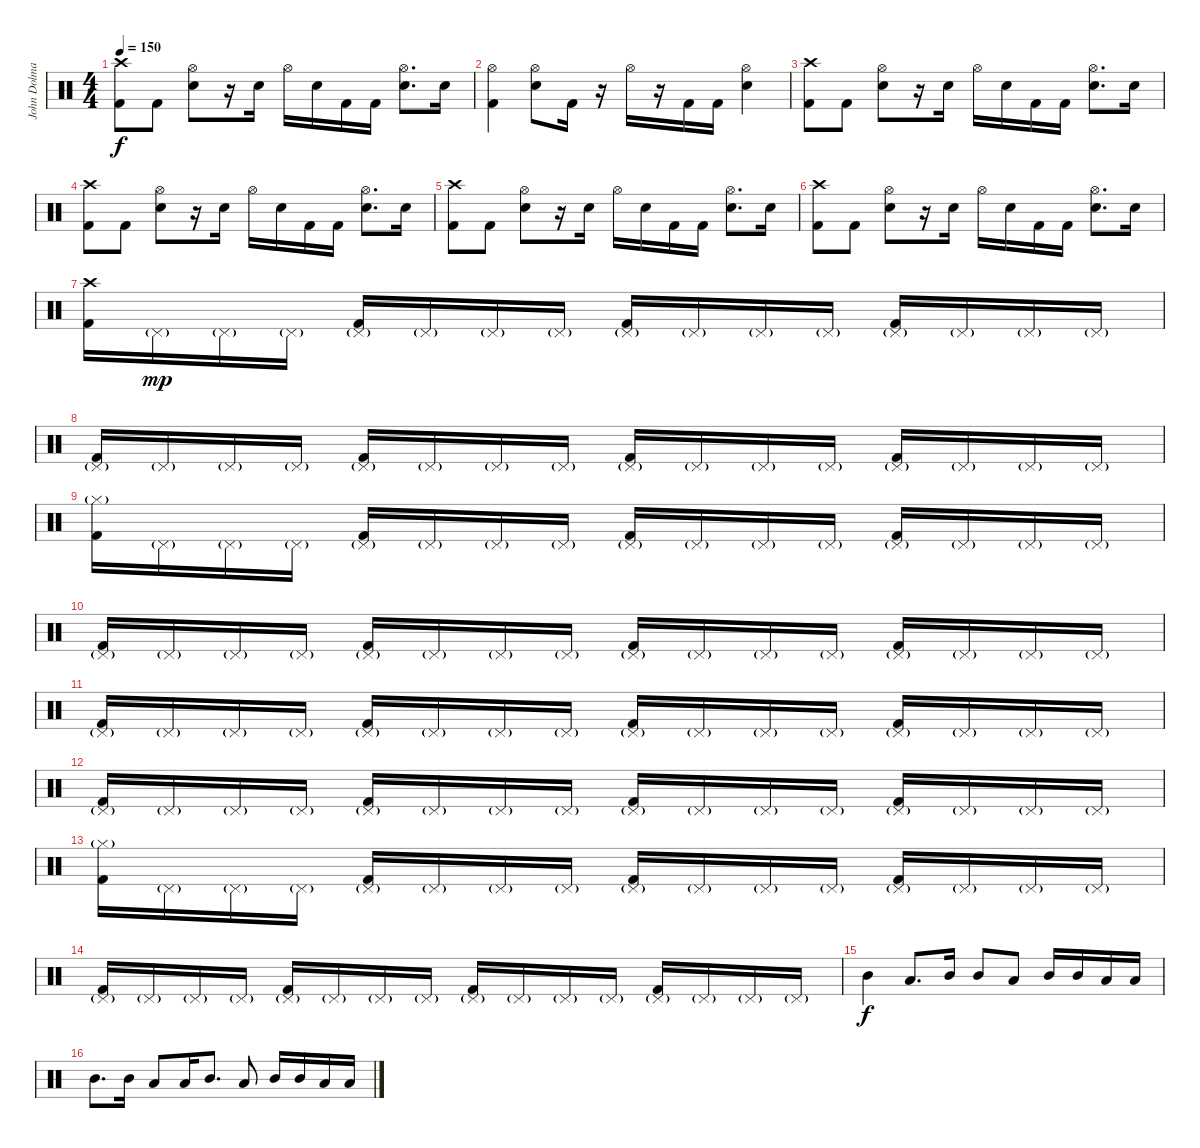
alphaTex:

\track ("John Dolmayan" "John Dolma") {instrument percussion}
\staff {score}
\articulation defaults
\ts (4 4)
\tempo 150
\clef neutral
\ks c
("Crash high (hit)" "Kick (hit) 2").8{dy f} "Kick (hit) 2".8 ("Hi-Hat (open)" "Electric Snare (hit)").8 r.16 "Electric Snare (hit)".16 "Hi-Hat (open)".16 "Electric Snare (hit)".16 "Kick (hit) 2".16 "Kick (hit) 2".16 ("Hi-Hat (open)" "Electric Snare (hit)").8{d} "Electric Snare (hit)".16 |
("Hi-Hat (open)" "Kick (hit) 2").4 ("Hi-Hat (open)" "Electric Snare (hit)").8 "Kick (hit) 2".16 r.16 "Hi-Hat (open)".16 r.16 "Kick (hit) 2".16 "Kick (hit) 2".16 ("Hi-Hat (open)" "Electric Snare (hit)").4 |
("Crash high (hit)" "Kick (hit) 2").8 "Kick (hit) 2".8 ("Hi-Hat (open)" "Electric Snare (hit)").8 r.16 "Electric Snare (hit)".16 "Hi-Hat (open)".16 "Electric Snare (hit)".16 "Kick (hit) 2".16 "Kick (hit) 2".16 ("Hi-Hat (open)" "Electric Snare (hit)").8{d} "Electric Snare (hit)".16 |
("Crash high (hit)" "Kick (hit) 2").8 "Kick (hit) 2".8 ("Hi-Hat (open)" "Electric Snare (hit)").8 r.16 "Electric Snare (hit)".16 "Hi-Hat (open)".16 "Electric Snare (hit)".16 "Kick (hit) 2".16 "Kick (hit) 2".16 ("Hi-Hat (open)" "Electric Snare (hit)").8{d} "Electric Snare (hit)".16 |
("Crash high (hit)" "Kick (hit) 2").8 "Kick (hit) 2".8 ("Hi-Hat (open)" "Electric Snare (hit)").8 r.16 "Electric Snare (hit)".16 "Hi-Hat (open)".16 "Electric Snare (hit)".16 "Kick (hit) 2".16 "Kick (hit) 2".16 ("Hi-Hat (open)" "Electric Snare (hit)").8{d} "Electric Snare (hit)".16 |
("Crash high (hit)" "Kick (hit) 2").8 "Kick (hit) 2".8 ("Hi-Hat (open)" "Electric Snare (hit)").8 r.16 "Electric Snare (hit)".16 "Hi-Hat (open)".16 "Electric Snare (hit)".16 "Kick (hit) 2".16 "Kick (hit) 2".16 ("Hi-Hat (open)" "Electric Snare (hit)").8{d} "Electric Snare (hit)".16 |
("Crash high (hit)" "Kick (hit) 2").16 "Pedal Hi-Hat (hit)"{g}.16{dy mp} "Pedal Hi-Hat (hit)"{g}.16 "Pedal Hi-Hat (hit)"{g}.16 ("Pedal Hi-Hat (hit)"{g} "Kick (hit) 2").16 "Pedal Hi-Hat (hit)"{g}.16 "Pedal Hi-Hat (hit)"{g}.16 "Pedal Hi-Hat (hit)"{g}.16 ("Pedal Hi-Hat (hit)"{g} "Kick (hit) 2").16 "Pedal Hi-Hat (hit)"{g}.16 "Pedal Hi-Hat (hit)"{g}.16 "Pedal Hi-Hat (hit)"{g}.16 ("Pedal Hi-Hat (hit)"{g} "Kick (hit) 2").16 "Pedal Hi-Hat (hit)"{g}.16 "Pedal Hi-Hat (hit)"{g}.16 "Pedal Hi-Hat (hit)"{g}.16 |
("Pedal Hi-Hat (hit)"{g} "Kick (hit) 2").16 "Pedal Hi-Hat (hit)"{g}.16 "Pedal Hi-Hat (hit)"{g}.16 "Pedal Hi-Hat (hit)"{g}.16 ("Pedal Hi-Hat (hit)"{g} "Kick (hit) 2").16 "Pedal Hi-Hat (hit)"{g}.16 "Pedal Hi-Hat (hit)"{g}.16 "Pedal Hi-Hat (hit)"{g}.16 ("Pedal Hi-Hat (hit)"{g} "Kick (hit) 2").16 "Pedal Hi-Hat (hit)"{g}.16 "Pedal Hi-Hat (hit)"{g}.16 "Pedal Hi-Hat (hit)"{g}.16 ("Pedal Hi-Hat (hit)"{g} "Kick (hit) 2").16 "Pedal Hi-Hat (hit)"{g}.16 "Pedal Hi-Hat (hit)"{g}.16 "Pedal Hi-Hat (hit)"{g}.16 |
("Hi-Hat (closed)"{g} "Kick (hit) 2").16 "Pedal Hi-Hat (hit)"{g}.16 "Pedal Hi-Hat (hit)"{g}.16 "Pedal Hi-Hat (hit)"{g}.16 ("Pedal Hi-Hat (hit)"{g} "Kick (hit) 2").16 "Pedal Hi-Hat (hit)"{g}.16 "Pedal Hi-Hat (hit)"{g}.16 "Pedal Hi-Hat (hit)"{g}.16 ("Pedal Hi-Hat (hit)"{g} "Kick (hit) 2").16 "Pedal Hi-Hat (hit)"{g}.16 "Pedal Hi-Hat (hit)"{g}.16 "Pedal Hi-Hat (hit)"{g}.16 ("Pedal Hi-Hat (hit)"{g} "Kick (hit) 2").16 "Pedal Hi-Hat (hit)"{g}.16 "Pedal Hi-Hat (hit)"{g}.16 "Pedal Hi-Hat (hit)"{g}.16 |
("Pedal Hi-Hat (hit)"{g} "Kick (hit) 2").16 "Pedal Hi-Hat (hit)"{g}.16 "Pedal Hi-Hat (hit)"{g}.16 "Pedal Hi-Hat (hit)"{g}.16 ("Pedal Hi-Hat (hit)"{g} "Kick (hit) 2").16 "Pedal Hi-Hat (hit)"{g}.16 "Pedal Hi-Hat (hit)"{g}.16 "Pedal Hi-Hat (hit)"{g}.16 ("Pedal Hi-Hat (hit)"{g} "Kick (hit) 2").16 "Pedal Hi-Hat (hit)"{g}.16 "Pedal Hi-Hat (hit)"{g}.16 "Pedal Hi-Hat (hit)"{g}.16 ("Pedal Hi-Hat (hit)"{g} "Kick (hit) 2").16 "Pedal Hi-Hat (hit)"{g}.16 "Pedal Hi-Hat (hit)"{g}.16 "Pedal Hi-Hat (hit)"{g}.16 |
("Pedal Hi-Hat (hit)"{g} "Kick (hit) 2").16 "Pedal Hi-Hat (hit)"{g}.16 "Pedal Hi-Hat (hit)"{g}.16 "Pedal Hi-Hat (hit)"{g}.16 ("Pedal Hi-Hat (hit)"{g} "Kick (hit) 2").16 "Pedal Hi-Hat (hit)"{g}.16 "Pedal Hi-Hat (hit)"{g}.16 "Pedal Hi-Hat (hit)"{g}.16 ("Pedal Hi-Hat (hit)"{g} "Kick (hit) 2").16 "Pedal Hi-Hat (hit)"{g}.16 "Pedal Hi-Hat (hit)"{g}.16 "Pedal Hi-Hat (hit)"{g}.16 ("Pedal Hi-Hat (hit)"{g} "Kick (hit) 2").16 "Pedal Hi-Hat (hit)"{g}.16 "Pedal Hi-Hat (hit)"{g}.16 "Pedal Hi-Hat (hit)"{g}.16 |
("Pedal Hi-Hat (hit)"{g} "Kick (hit) 2").16 "Pedal Hi-Hat (hit)"{g}.16 "Pedal Hi-Hat (hit)"{g}.16 "Pedal Hi-Hat (hit)"{g}.16 ("Pedal Hi-Hat (hit)"{g} "Kick (hit) 2").16 "Pedal Hi-Hat (hit)"{g}.16 "Pedal Hi-Hat (hit)"{g}.16 "Pedal Hi-Hat (hit)"{g}.16 ("Pedal Hi-Hat (hit)"{g} "Kick (hit) 2").16 "Pedal Hi-Hat (hit)"{g}.16 "Pedal Hi-Hat (hit)"{g}.16 "Pedal Hi-Hat (hit)"{g}.16 ("Pedal Hi-Hat (hit)"{g} "Kick (hit) 2").16 "Pedal Hi-Hat (hit)"{g}.16 "Pedal Hi-Hat (hit)"{g}.16 "Pedal Hi-Hat (hit)"{g}.16 |
("Hi-Hat (closed)"{g} "Kick (hit) 2").16 "Pedal Hi-Hat (hit)"{g}.16 "Pedal Hi-Hat (hit)"{g}.16 "Pedal Hi-Hat (hit)"{g}.16 ("Pedal Hi-Hat (hit)"{g} "Kick (hit) 2").16 "Pedal Hi-Hat (hit)"{g}.16 "Pedal Hi-Hat (hit)"{g}.16 "Pedal Hi-Hat (hit)"{g}.16 ("Pedal Hi-Hat (hit)"{g} "Kick (hit) 2").16 "Pedal Hi-Hat (hit)"{g}.16 "Pedal Hi-Hat (hit)"{g}.16 "Pedal Hi-Hat (hit)"{g}.16 ("Pedal Hi-Hat (hit)"{g} "Kick (hit) 2").16 "Pedal Hi-Hat (hit)"{g}.16 "Pedal Hi-Hat (hit)"{g}.16 "Pedal Hi-Hat (hit)"{g}.16 |
("Pedal Hi-Hat (hit)"{g} "Kick (hit) 2").16 "Pedal Hi-Hat (hit)"{g}.16 "Pedal Hi-Hat (hit)"{g}.16 "Pedal Hi-Hat (hit)"{g}.16 ("Pedal Hi-Hat (hit)"{g} "Kick (hit) 2").16 "Pedal Hi-Hat (hit)"{g}.16 "Pedal Hi-Hat (hit)"{g}.16 "Pedal Hi-Hat (hit)"{g}.16 ("Pedal Hi-Hat (hit)"{g} "Kick (hit) 2").16 "Pedal Hi-Hat (hit)"{g}.16 "Pedal Hi-Hat (hit)"{g}.16 "Pedal Hi-Hat (hit)"{g}.16 ("Pedal Hi-Hat (hit)"{g} "Kick (hit) 2").16 "Pedal Hi-Hat (hit)"{g}.16 "Pedal Hi-Hat (hit)"{g}.16 "Pedal Hi-Hat (hit)"{g}.16 |
"Mid Tom (hit)".4{dy f} "Low Tom (hit)".8{d} "Mid Tom (hit)".16 "Mid Tom (hit)".8 "Low Tom (hit)".8 "Mid Tom (hit)".16 "Mid Tom (hit)".16 "Low Tom (hit)".16 "Low Tom (hit)".16 |
"Mid Tom (hit)".8{d} "Mid Tom (hit)".16 "Low Tom (hit)".8 "Low Tom (hit)".16 "Mid Tom (hit)".8{d} "Low Tom (hit)".8 "Mid Tom (hit)".16 "Mid Tom (hit)".16 "Low Tom (hit)".16 "Low Tom (hit)".16
